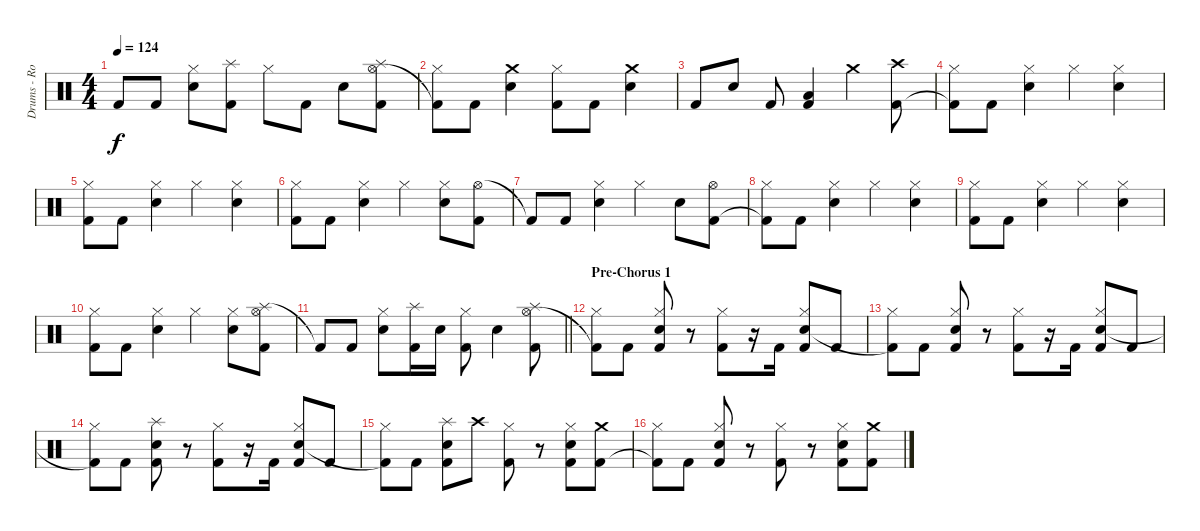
\track ("Drums - Rockenfield" "Drums - Ro") {instrument percussion}
\staff {score}
\articulation defaults
\ts (4 4)
\tempo 124
\clef neutral
\ks c "Kick (hit) 2"{t}.8{dy f} "Kick (hit) 2".8
("Hi-Hat (closed)" "Snare (hit) 2").8 ("Splash (hit)" "Kick (hit) 2").8 "Hi-Hat (closed)".8 "Kick (hit) 2".8 "Snare (hit) 2".8 ("Splash (hit)" "Hi-Hat (open)" "Kick (hit) 2").8 |
("Hi-Hat (closed)" "Kick (hit) 2"{t}).8 "Kick (hit) 2".8 ("Crash medium (hit)" "Snare (hit) 2").4 ("Hi-Hat (closed)" "Kick (hit) 2").8 "Kick (hit) 2".8 ("Crash medium (hit)" "Snare (hit) 2").4 |
"Kick (hit) 2".8 "Snare (hit) 2".8 "Kick (hit) 2".8 ("Low Tom (hit)" "Kick (hit) 2").4 "Crash medium (hit)".4 ("Crash high (hit)" "Kick (hit) 2").8 |
("Hi-Hat (closed)" "Kick (hit) 2"{t}).8 "Kick (hit) 2".8 ("Hi-Hat (closed)" "Snare (hit) 2").4 "Hi-Hat (closed)".4 ("Hi-Hat (closed)" "Snare (hit) 2").4 |
("Hi-Hat (closed)" "Kick (hit) 2").8 "Kick (hit) 2".8 ("Hi-Hat (closed)" "Snare (hit) 2").4 "Hi-Hat (closed)".4 ("Hi-Hat (closed)" "Snare (hit) 2").4 |
("Hi-Hat (closed)" "Kick (hit) 2").8 "Kick (hit) 2".8 ("Hi-Hat (closed)" "Snare (hit) 2").4 "Hi-Hat (closed)".4 ("Hi-Hat (closed)" "Snare (hit) 2").8 ("Hi-Hat (open)" "Kick (hit) 2").8 |
"Kick (hit) 2"{t}.8 "Kick (hit) 2".8 ("Hi-Hat (closed)" "Snare (hit) 2").4 "Hi-Hat (closed)".4 "Snare (hit) 2".8 ("Hi-Hat (open)" "Kick (hit) 2").8 |
("Hi-Hat (closed)" "Kick (hit) 2"{t}).8 "Kick (hit) 2".8 ("Hi-Hat (closed)" "Snare (hit) 2").4 "Hi-Hat (closed)".4 ("Hi-Hat (closed)" "Snare (hit) 2").4 |
("Hi-Hat (closed)" "Kick (hit) 2").8 "Kick (hit) 2".8 ("Hi-Hat (closed)" "Snare (hit) 2").4 "Hi-Hat (closed)".4 ("Hi-Hat (closed)" "Snare (hit) 2").4 |
("Hi-Hat (closed)" "Kick (hit) 2").8 "Kick (hit) 2".8 ("Hi-Hat (closed)" "Snare (hit) 2").4 "Hi-Hat (closed)".4 ("Hi-Hat (closed)" "Snare (hit) 2").8 ("Splash (hit)" "Hi-Hat (open)" "Kick (hit) 2").8 |
\barLineRight lightlight "Kick (hit) 2"{t}.8 "Kick (hit) 2".8
("Hi-Hat (closed)" "Snare (hit) 2").8 ("Splash (hit)" "Kick (hit) 2").16 "Snare (hit) 2".16 ("Hi-Hat (closed)" "Kick (hit) 2").8 "Snare (hit) 2".4 ("Splash (hit)" "Hi-Hat (open)" "Kick (hit) 2").8 |
\section ("" "Pre-Chorus 1")
("Hi-Hat (closed)" "Kick (hit) 2"{t}).8 "Kick (hit) 2".8 ("Hi-Hat (closed)" "Snare (hit) 2" "Kick (hit) 2").8 r.8 ("Hi-Hat (closed)" "Kick (hit) 2").8 r.16 "Kick (hit) 2".16 ("Hi-Hat (closed)" "Snare (hit) 2" "Kick (hit) 2").8 "Kick (hit) 2".8 |
("Hi-Hat (closed)" "Kick (hit) 2"{t}).8 "Kick (hit) 2".8 ("Hi-Hat (closed)" "Snare (hit) 2" "Kick (hit) 2").8 r.8 ("Hi-Hat (closed)" "Kick (hit) 2").8 r.16 "Kick (hit) 2".16 ("Hi-Hat (closed)" "Snare (hit) 2" "Kick (hit) 2").8 "Kick (hit) 2".8 |
("Hi-Hat (closed)" "Kick (hit) 2"{t}).8 "Kick (hit) 2".8 ("Splash (hit)" "Snare (hit) 2" "Kick (hit) 2").8 r.8 ("Hi-Hat (closed)" "Kick (hit) 2").8 r.16 "Kick (hit) 2".16 ("Hi-Hat (closed)" "Snare (hit) 2" "Kick (hit) 2").8 "Kick (hit) 2".8 |
("Hi-Hat (closed)" "Kick (hit) 2"{t}).8 "Kick (hit) 2".8 ("Splash (hit)" "Snare (hit) 2" "Kick (hit) 2").8 "Crash high (hit)".8 ("Hi-Hat (closed)" "Kick (hit) 2").8 r.8 ("Hi-Hat (closed)" "Snare (hit) 2" "Kick (hit) 2").8 ("Crash medium (hit)" "Kick (hit) 2").8 |
("Hi-Hat (closed)" "Kick (hit) 2"{t}).8 "Kick (hit) 2".8 ("Hi-Hat (closed)" "Snare (hit) 2" "Kick (hit) 2").8 r.8 ("Hi-Hat (closed)" "Kick (hit) 2").8 r.8 ("Hi-Hat (closed)" "Snare (hit) 2" "Kick (hit) 2").8 ("Crash medium (hit)" "Kick (hit) 2").8
